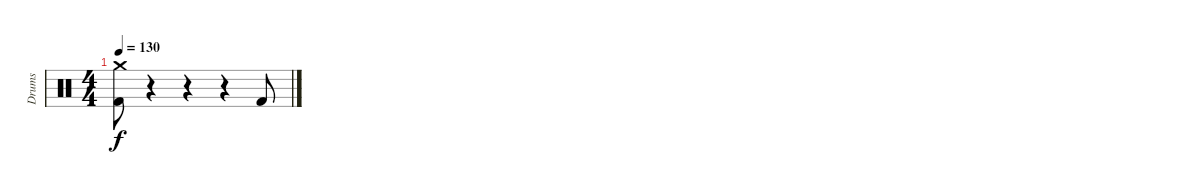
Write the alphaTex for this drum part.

\track ("Drums" "Drums") {instrument percussion}
\staff {score}
\articulation defaults
\ts (4 4)
\tempo 130
\clef neutral
\ks c
("Kick (hit) 2" "Crash medium (hit)").8{dy f} r.4 r.4 r.4 "Kick (hit) 2".8
